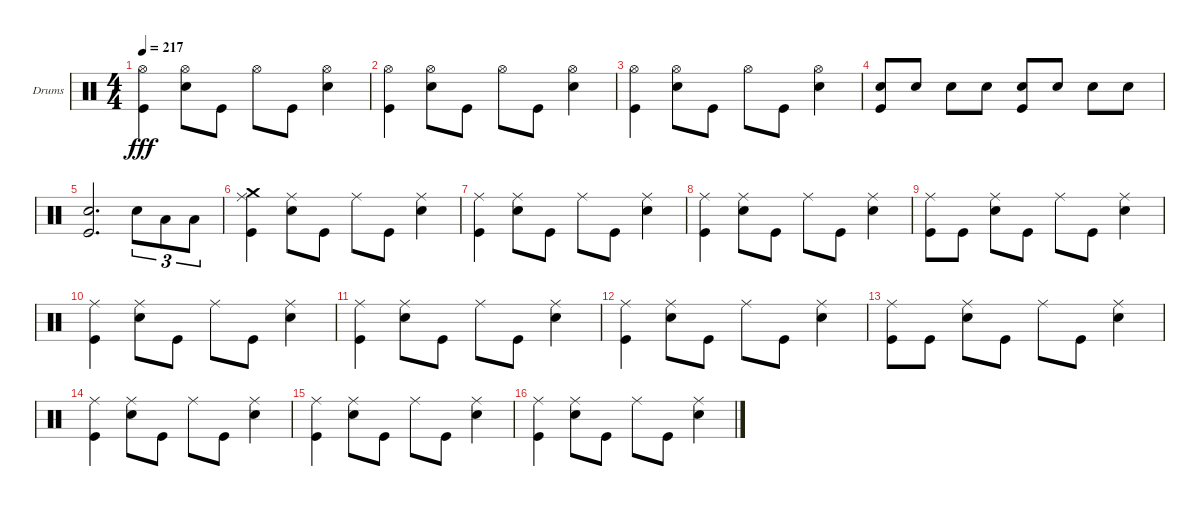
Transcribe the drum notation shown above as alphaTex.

\bracketExtendMode groupsimilarinstruments
\firstSystemTrackNameOrientation horizontal
\otherSystemsTrackNameOrientation horizontal
\track ("Drumkit" "Drums") {instrument percussion}
\staff {score}
\articulation defaults
\ts (4 4)
\tempo 217
\clef neutral
\ks c
("Kick (hit)" "Hi-Hat (open)").4{dy fff} ("Hi-Hat (open)" "Snare (hit) 2").8 "Kick (hit)".8 "Hi-Hat (open)".8 "Kick (hit)".8 ("Snare (hit) 2" "Hi-Hat (open)").4 |
("Kick (hit)" "Hi-Hat (open)").4 ("Hi-Hat (open)" "Snare (hit) 2").8 "Kick (hit)".8 "Hi-Hat (open)".8 "Kick (hit)".8 ("Snare (hit) 2" "Hi-Hat (open)").4 |
("Kick (hit)" "Hi-Hat (open)").4 ("Hi-Hat (open)" "Snare (hit) 2").8 "Kick (hit)".8 "Hi-Hat (open)".8 "Kick (hit)".8 ("Snare (hit) 2" "Hi-Hat (open)").4 |
("Snare (hit) 2" "Kick (hit)").8 "Snare (hit) 2".8 "Snare (hit) 2".8 "Snare (hit) 2".8 ("Snare (hit) 2" "Kick (hit)").8 "Snare (hit) 2".8 "Snare (hit) 2".8 "Snare (hit) 2".8 |
("Kick (hit)" "Snare (hit) 2").2{d} "Snare (hit) 2".8{tu (3 2)} "Low Tom (hit)".8{tu (3 2)} "Low Tom (hit)".8{tu (3 2)} |
("Kick (hit)" "Ride (middle)" "Crash medium (hit)").4 ("Snare (hit) 2" "Ride (middle)").8 "Kick (hit)".8 "Ride (middle)".8 "Kick (hit)".8 ("Snare (hit) 2" "Ride (middle)").4 |
("Kick (hit)" "Ride (middle)").4 ("Snare (hit) 2" "Ride (middle)").8 "Kick (hit)".8 "Ride (middle)".8 "Kick (hit)".8 ("Snare (hit) 2" "Ride (middle)").4 |
("Kick (hit)" "Ride (middle)").4 ("Snare (hit) 2" "Ride (middle)").8 "Kick (hit)".8 "Ride (middle)".8 "Kick (hit)".8 ("Snare (hit) 2" "Ride (middle)").4 |
("Kick (hit)" "Ride (middle)").8 "Kick (hit)".8 ("Snare (hit) 2" "Ride (middle)").8 "Kick (hit)".8 "Ride (middle)".8 "Kick (hit)".8 ("Snare (hit) 2" "Ride (middle)").4 |
("Kick (hit)" "Ride (middle)").4 ("Snare (hit) 2" "Ride (middle)").8 "Kick (hit)".8 "Ride (middle)".8 "Kick (hit)".8 ("Snare (hit) 2" "Ride (middle)").4 |
("Kick (hit)" "Ride (middle)").4 ("Snare (hit) 2" "Ride (middle)").8 "Kick (hit)".8 "Ride (middle)".8 "Kick (hit)".8 ("Snare (hit) 2" "Ride (middle)").4 |
("Kick (hit)" "Ride (middle)").4 ("Snare (hit) 2" "Ride (middle)").8 "Kick (hit)".8 "Ride (middle)".8 "Kick (hit)".8 ("Snare (hit) 2" "Ride (middle)").4 |
("Kick (hit)" "Ride (middle)").8 "Kick (hit)".8 ("Snare (hit) 2" "Ride (middle)").8 "Kick (hit)".8 "Ride (middle)".8 "Kick (hit)".8 ("Snare (hit) 2" "Ride (middle)").4 |
("Kick (hit)" "Ride (middle)").4 ("Snare (hit) 2" "Ride (middle)").8 "Kick (hit)".8 "Ride (middle)".8 "Kick (hit)".8 ("Snare (hit) 2" "Ride (middle)").4 |
("Kick (hit)" "Ride (middle)").4 ("Snare (hit) 2" "Ride (middle)").8 "Kick (hit)".8 "Ride (middle)".8 "Kick (hit)".8 ("Snare (hit) 2" "Ride (middle)").4 |
("Kick (hit)" "Ride (middle)").4 ("Snare (hit) 2" "Ride (middle)").8 "Kick (hit)".8 "Ride (middle)".8 "Kick (hit)".8 ("Snare (hit) 2" "Ride (middle)").4
